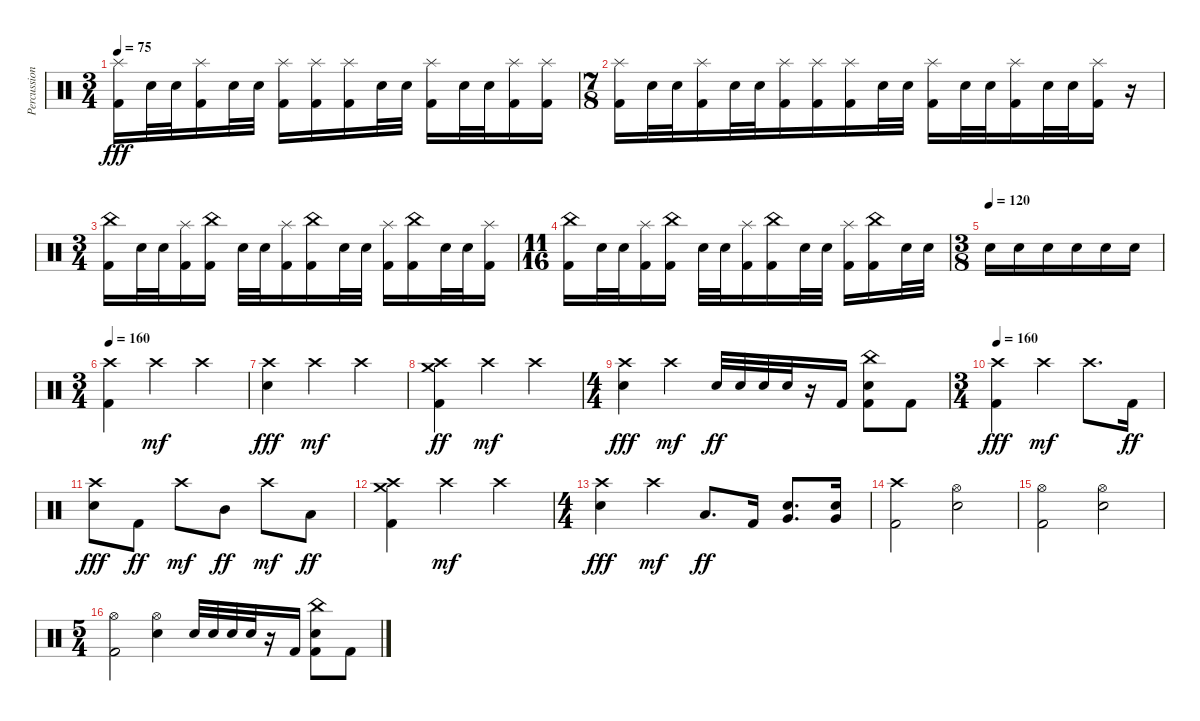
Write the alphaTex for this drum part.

\track ("Percussion" "Percussion") {instrument percussion}
\staff {score}
\articulation defaults
\ts (3 4)
\tempo 75
\clef neutral
\ks c
("Splash (hit)" "Kick (hit) 2").16{dy fff} "Electric Snare (hit)".32 "Electric Snare (hit)".32 ("Splash (hit)" "Kick (hit) 2").16 "Electric Snare (hit)".32 "Electric Snare (hit)".32 ("Splash (hit)" "Kick (hit) 2").16 ("Splash (hit)" "Kick (hit) 2").16 ("Splash (hit)" "Kick (hit) 2").16 "Electric Snare (hit)".32 "Electric Snare (hit)".32 ("Splash (hit)" "Kick (hit) 2").16 "Electric Snare (hit)".32 "Electric Snare (hit)".32 ("Splash (hit)" "Kick (hit) 2").16 ("Splash (hit)" "Kick (hit) 2").16 |
\ts (7 8)
("Splash (hit)" "Kick (hit) 2").16 "Electric Snare (hit)".32 "Electric Snare (hit)".32 ("Splash (hit)" "Kick (hit) 2").16 "Electric Snare (hit)".32 "Electric Snare (hit)".32 ("Splash (hit)" "Kick (hit) 2").16 ("Splash (hit)" "Kick (hit) 2").16 ("Splash (hit)" "Kick (hit) 2").16 "Electric Snare (hit)".32 "Electric Snare (hit)".32 ("Splash (hit)" "Kick (hit) 2").16 "Electric Snare (hit)".32 "Electric Snare (hit)".32 ("Splash (hit)" "Kick (hit) 2").16 "Electric Snare (hit)".32 "Electric Snare (hit)".32 ("Splash (hit)" "Kick (hit) 2").16 r.16 |
\ts (3 4)
("China (hit)" "Kick (hit) 2").16 "Electric Snare (hit)".32 "Electric Snare (hit)".32 ("Splash (hit)" "Kick (hit) 2").16 ("China (hit)" "Kick (hit) 2").16 "Electric Snare (hit)".32 "Electric Snare (hit)".32 ("Splash (hit)" "Kick (hit) 2").16 ("China (hit)" "Kick (hit) 2").16 "Electric Snare (hit)".32 "Electric Snare (hit)".32 ("Splash (hit)" "Kick (hit) 2").16 ("China (hit)" "Kick (hit) 2").16 "Electric Snare (hit)".32 "Electric Snare (hit)".32 ("Splash (hit)" "Kick (hit) 2").16 |
\ts (11 16)
("China (hit)" "Kick (hit) 2").16 "Electric Snare (hit)".32 "Electric Snare (hit)".32 ("Splash (hit)" "Kick (hit) 2").16 ("China (hit)" "Kick (hit) 2").16 "Electric Snare (hit)".32 "Electric Snare (hit)".32 ("Splash (hit)" "Kick (hit) 2").16 ("China (hit)" "Kick (hit) 2").16 "Electric Snare (hit)".32 "Electric Snare (hit)".32 ("Splash (hit)" "Kick (hit) 2").16 ("China (hit)" "Kick (hit) 2").16 "Electric Snare (hit)".32 "Electric Snare (hit)".32 |
\ts (3 8)
\tempo (120)
"Electric Snare (hit)".16 "Electric Snare (hit)".16 "Electric Snare (hit)".16 "Electric Snare (hit)".16 "Electric Snare (hit)".16 "Electric Snare (hit)".16 |
\ts (3 4)
\tempo 160
("Crash high (hit)" "Kick (hit) 2").4 "Crash high (hit)".4{dy mf} "Crash high (hit)".4 |
("Crash high (hit)" "Electric Snare (hit)").4{dy fff} "Crash high (hit)".4{dy mf} "Crash high (hit)".4 |
("Crash high (hit)" "Crash medium (hit)" "Kick (hit) 2").4{dy ff} "Crash high (hit)".4{dy mf} "Crash high (hit)".4 |
\ts (4 4)
("Crash high (hit)" "Electric Snare (hit)").4{dy fff} "Crash high (hit)".4{dy mf} "Electric Snare (hit)".32{dy ff} "Electric Snare (hit)".32 "Electric Snare (hit)".32 "Electric Snare (hit)".32 r.16 "Kick (hit) 2".16 ("China (hit)" "Electric Snare (hit)" "Kick (hit) 2").8 "Kick (hit) 2".8 |
\ts (3 4)
\tempo 160
("Crash high (hit)" "Kick (hit) 2").4{dy fff} "Crash high (hit)".4{dy mf} "Crash high (hit)".8{d} "Kick (hit) 2".16{dy ff} |
("Crash high (hit)" "Electric Snare (hit)").8{dy fff} "Kick (hit) 2".8{dy ff} "Crash high (hit)".8{dy mf} "Mid Tom (hit)".8{dy ff} "Crash high (hit)".8{dy mf} "Low Tom (hit)".8{dy ff} |
("Crash high (hit)" "Crash medium (hit)" "Kick (hit) 2").4 "Crash high (hit)".4{dy mf} "Crash high (hit)".4 |
\ts (4 4)
("Crash high (hit)" "Electric Snare (hit)").4{dy fff} "Crash high (hit)".4{dy mf} "Low Tom (hit)".8{d dy ff} "Kick (hit) 2".16 ("Very Low Tom (hit)" "Electric Snare (hit)").8{d} ("Very Low Tom (hit)" "Electric Snare (hit)").16 |
("Crash high (hit)" "Kick (hit) 2").2 ("Hi-Hat (open)" "Electric Snare (hit)").2 |
("Hi-Hat (open)" "Kick (hit) 2").2 ("Hi-Hat (open)" "Electric Snare (hit)").2 |
\ts (5 4)
("Hi-Hat (open)" "Kick (hit) 2").2 ("Hi-Hat (open)" "Electric Snare (hit)").4 "Electric Snare (hit)".32 "Electric Snare (hit)".32 "Electric Snare (hit)".32 "Electric Snare (hit)".32 r.16 "Kick (hit) 2".16 ("China (hit)" "Electric Snare (hit)" "Kick (hit) 2").8 "Kick (hit) 2".8
